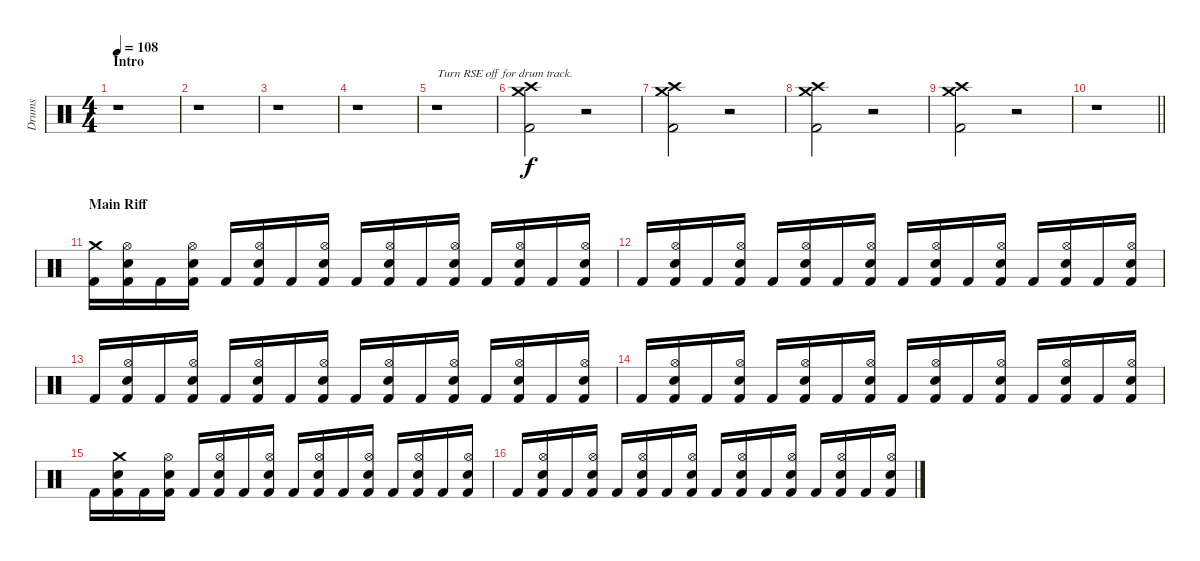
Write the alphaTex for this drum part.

\track ("Drums" "Drums") {instrument percussion}
\staff {score}
\articulation defaults
\ts (4 4)
\section ("" "Intro")
\tempo 108
\clef neutral
\ks c
r.1{dy f} |
r.1 |
r.1 |
r.1 |
r.1{txt "Turn RSE off for drum track."} |
("Crash medium (hit)" "Crash high (hit)" "Kick (hit) 2").2 r.2 |
("Crash medium (hit)" "Crash high (hit)" "Kick (hit) 2").2 r.2 |
("Crash medium (hit)" "Crash high (hit)" "Kick (hit) 2").2 r.2 |
("Crash medium (hit)" "Crash high (hit)" "Kick (hit) 2").2 r.2 |
\barLineRight lightlight
r.1 |
\section ("" "Main Riff")
("Crash medium (hit)" "Kick (hit) 2").16 ("Hi-Hat (open)" "Snare (hit) 2" "Kick (hit) 2").16 "Kick (hit) 2".16 ("Hi-Hat (open)" "Snare (hit) 2" "Kick (hit) 2").16 "Kick (hit) 2".16 ("Hi-Hat (open)" "Snare (hit) 2" "Kick (hit) 2").16 "Kick (hit) 2".16 ("Hi-Hat (open)" "Snare (hit) 2" "Kick (hit) 2").16 "Kick (hit) 2".16 ("Hi-Hat (open)" "Snare (hit) 2" "Kick (hit) 2").16 "Kick (hit) 2".16 ("Hi-Hat (open)" "Snare (hit) 2" "Kick (hit) 2").16 "Kick (hit) 2".16 ("Hi-Hat (open)" "Snare (hit) 2" "Kick (hit) 2").16 "Kick (hit) 2".16 ("Hi-Hat (open)" "Snare (hit) 2" "Kick (hit) 2").16 |
"Kick (hit) 2".16 ("Hi-Hat (open)" "Snare (hit) 2" "Kick (hit) 2").16 "Kick (hit) 2".16 ("Hi-Hat (open)" "Snare (hit) 2" "Kick (hit) 2").16 "Kick (hit) 2".16 ("Hi-Hat (open)" "Snare (hit) 2" "Kick (hit) 2").16 "Kick (hit) 2".16 ("Hi-Hat (open)" "Snare (hit) 2" "Kick (hit) 2").16 "Kick (hit) 2".16 ("Hi-Hat (open)" "Snare (hit) 2" "Kick (hit) 2").16 "Kick (hit) 2".16 ("Hi-Hat (open)" "Snare (hit) 2" "Kick (hit) 2").16 "Kick (hit) 2".16 ("Hi-Hat (open)" "Snare (hit) 2" "Kick (hit) 2").16 "Kick (hit) 2".16 ("Hi-Hat (open)" "Snare (hit) 2" "Kick (hit) 2").16 |
"Kick (hit) 2".16 ("Hi-Hat (open)" "Snare (hit) 2" "Kick (hit) 2").16 "Kick (hit) 2".16 ("Hi-Hat (open)" "Snare (hit) 2" "Kick (hit) 2").16 "Kick (hit) 2".16 ("Hi-Hat (open)" "Snare (hit) 2" "Kick (hit) 2").16 "Kick (hit) 2".16 ("Hi-Hat (open)" "Snare (hit) 2" "Kick (hit) 2").16 "Kick (hit) 2".16 ("Hi-Hat (open)" "Snare (hit) 2" "Kick (hit) 2").16 "Kick (hit) 2".16 ("Hi-Hat (open)" "Snare (hit) 2" "Kick (hit) 2").16 "Kick (hit) 2".16 ("Hi-Hat (open)" "Snare (hit) 2" "Kick (hit) 2").16 "Kick (hit) 2".16 ("Hi-Hat (open)" "Snare (hit) 2" "Kick (hit) 2").16 |
"Kick (hit) 2".16 ("Hi-Hat (open)" "Snare (hit) 2" "Kick (hit) 2").16 "Kick (hit) 2".16 ("Hi-Hat (open)" "Snare (hit) 2" "Kick (hit) 2").16 "Kick (hit) 2".16 ("Hi-Hat (open)" "Snare (hit) 2" "Kick (hit) 2").16 "Kick (hit) 2".16 ("Hi-Hat (open)" "Snare (hit) 2" "Kick (hit) 2").16 "Kick (hit) 2".16 ("Hi-Hat (open)" "Snare (hit) 2" "Kick (hit) 2").16 "Kick (hit) 2".16 ("Hi-Hat (open)" "Snare (hit) 2" "Kick (hit) 2").16 "Kick (hit) 2".16 ("Hi-Hat (open)" "Snare (hit) 2" "Kick (hit) 2").16 "Kick (hit) 2".16 ("Hi-Hat (open)" "Snare (hit) 2" "Kick (hit) 2").16 |
"Kick (hit) 2".16 ("Crash medium (hit)" "Snare (hit) 2" "Kick (hit) 2").16 "Kick (hit) 2".16 ("Hi-Hat (open)" "Snare (hit) 2" "Kick (hit) 2").16 "Kick (hit) 2".16 ("Hi-Hat (open)" "Snare (hit) 2" "Kick (hit) 2").16 "Kick (hit) 2".16 ("Hi-Hat (open)" "Snare (hit) 2" "Kick (hit) 2").16 "Kick (hit) 2".16 ("Hi-Hat (open)" "Snare (hit) 2" "Kick (hit) 2").16 "Kick (hit) 2".16 ("Hi-Hat (open)" "Snare (hit) 2" "Kick (hit) 2").16 "Kick (hit) 2".16 ("Hi-Hat (open)" "Snare (hit) 2" "Kick (hit) 2").16 "Kick (hit) 2".16 ("Hi-Hat (open)" "Snare (hit) 2" "Kick (hit) 2").16 |
"Kick (hit) 2".16 ("Hi-Hat (open)" "Snare (hit) 2" "Kick (hit) 2").16 "Kick (hit) 2".16 ("Hi-Hat (open)" "Snare (hit) 2" "Kick (hit) 2").16 "Kick (hit) 2".16 ("Hi-Hat (open)" "Snare (hit) 2" "Kick (hit) 2").16 "Kick (hit) 2".16 ("Hi-Hat (open)" "Snare (hit) 2" "Kick (hit) 2").16 "Kick (hit) 2".16 ("Hi-Hat (open)" "Snare (hit) 2" "Kick (hit) 2").16 "Kick (hit) 2".16 ("Hi-Hat (open)" "Snare (hit) 2" "Kick (hit) 2").16 "Kick (hit) 2".16 ("Hi-Hat (open)" "Snare (hit) 2" "Kick (hit) 2").16 "Kick (hit) 2".16 ("Hi-Hat (open)" "Snare (hit) 2" "Kick (hit) 2").16
